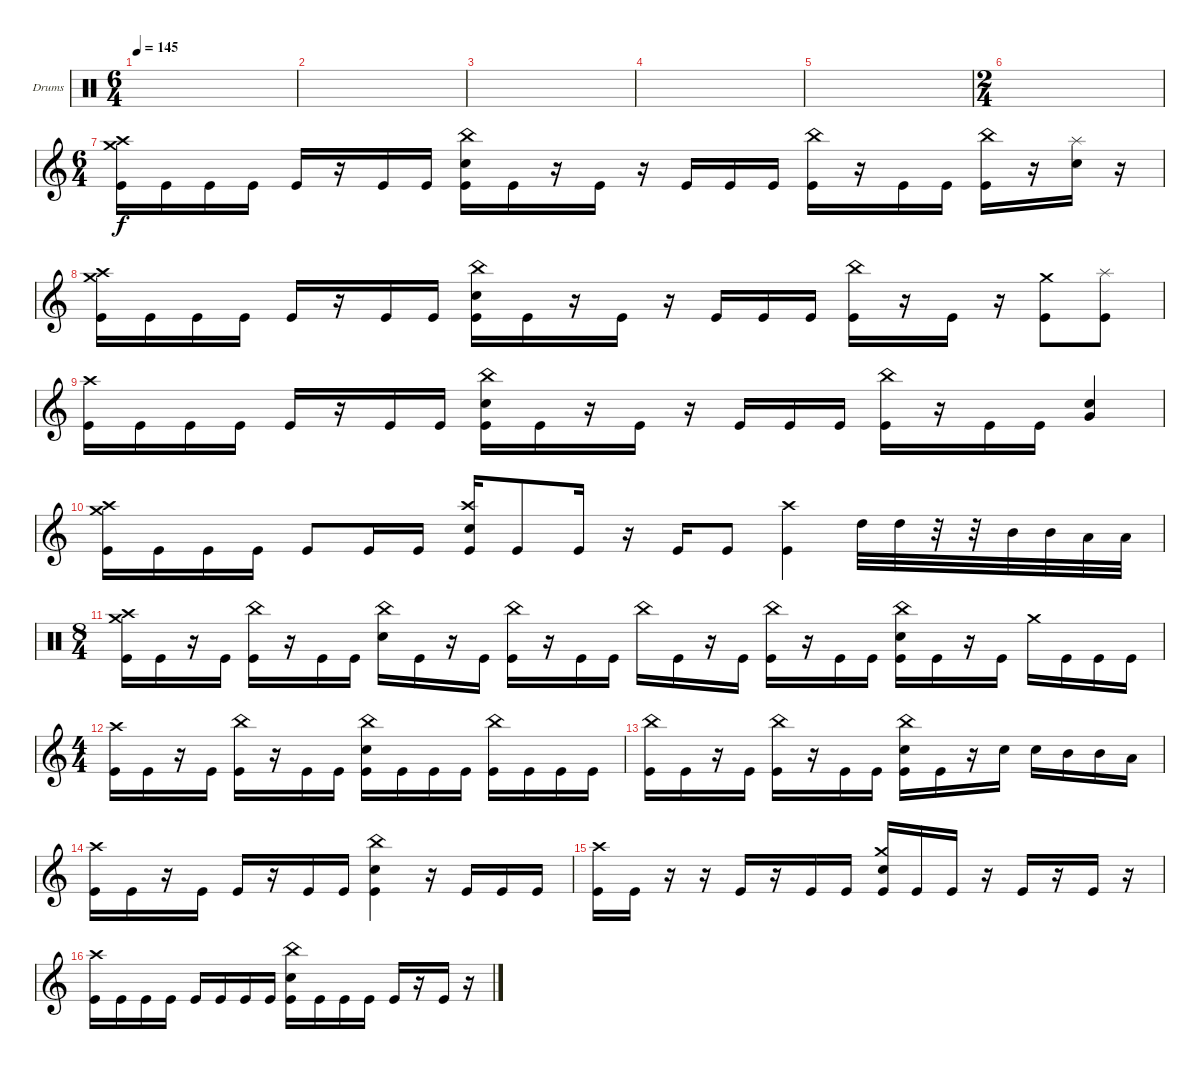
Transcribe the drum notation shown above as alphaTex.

\defaultSystemsLayout 4
\bracketExtendMode groupsimilarinstruments
\firstSystemTrackNameOrientation horizontal
\otherSystemsTrackNameOrientation horizontal
\track ("Drums" "Drums") {instrument percussion}
\staff {score}
\articulation defaults
\ts (6 4)
\tempo 145
\clef neutral
\ks c
|
|
|
|
|
\ts (2 4)
|
\ts (6 4)
\clef g2
("Kick (hit)" "Crash high (hit)" "Crash medium (hit)").16 "Kick (hit)".16 "Kick (hit)".16 "Kick (hit)".16 "Kick (hit)".16 r.16 "Kick (hit)".16 "Kick (hit)".16 ("Kick (hit)" "Snare (hit) 2" "China (hit)").16 "Kick (hit)".16 r.16 "Kick (hit)".16 r.16 "Kick (hit)".16 "Kick (hit)".16 "Kick (hit)".16 ("Kick (hit)" "China (hit)").16 r.16 "Kick (hit)".16 "Kick (hit)".16 ("Kick (hit)" "China (hit)").16 r.16 ("Snare (hit) 2" "Splash (hit)").16 r.16 |
("Kick (hit)" "Crash high (hit)" "Crash medium (hit)").16 "Kick (hit)".16 "Kick (hit)".16 "Kick (hit)".16 "Kick (hit)".16 r.16 "Kick (hit)".16 "Kick (hit)".16 ("Kick (hit)" "Snare (hit) 2" "China (hit)").16 "Kick (hit)".16 r.16 "Kick (hit)".16 r.16 "Kick (hit)".16 "Kick (hit)".16 "Kick (hit)".16 ("Kick (hit)" "China (hit)").16 r.16 "Kick (hit)".16 r.16 ("Kick (hit)" "Crash medium (hit)").8 ("Kick (hit)" "Splash (hit)").8 |
("Kick (hit)" "Crash high (hit)").16 "Kick (hit)".16 "Kick (hit)".16 "Kick (hit)".16 "Kick (hit)".16 r.16 "Kick (hit)".16 "Kick (hit)".16 ("Kick (hit)" "Snare (hit) 2" "China (hit)").16 "Kick (hit)".16 r.16 "Kick (hit)".16 r.16 "Kick (hit)".16 "Kick (hit)".16 "Kick (hit)".16 ("Kick (hit)" "China (hit)").16 r.16 "Kick (hit)".16 "Kick (hit)".16 ("Snare (hit) 2" "Very Low Tom (hit)").4 |
("Kick (hit)" "Crash high (hit)" "Crash medium (hit)").16 "Kick (hit)".16 "Kick (hit)".16 "Kick (hit)".16 "Kick (hit)".8 "Kick (hit)".16 "Kick (hit)".16 ("Kick (hit)" "Snare (hit) 2" "Crash high (hit)").16 "Kick (hit)".8 "Kick (hit)".16 r.16 "Kick (hit)".16 "Kick (hit)".8 ("Kick (hit)" "Crash high (hit)").4 "High Tom (hit)".32 "High Tom (hit)".32 r.32 r.32 "Mid Tom (hit)".32 "Mid Tom (hit)".32 "Low Tom (hit)".32 "Low Tom (hit)".32 |
\ts (8 4)
\clef neutral
("Kick (hit)" "Crash high (hit)" "Crash medium (hit)").16 "Kick (hit)".16 r.16 "Kick (hit)".16 ("Kick (hit)" "China (hit)").16 r.16 "Kick (hit)".16 "Kick (hit)".16 ("Snare (hit) 2" "China (hit)").16 "Kick (hit)".16 r.16 "Kick (hit)".16 ("Kick (hit)" "China (hit)").16 r.16 "Kick (hit)".16 "Kick (hit)".16 "China (hit)".16 "Kick (hit)".16 r.16 "Kick (hit)".16 ("Kick (hit)" "China (hit)").16 r.16 "Kick (hit)".16 "Kick (hit)".16 ("Kick (hit)" "Snare (hit) 2" "China (hit)").16 "Kick (hit)".16 r.16 "Kick (hit)".16 "Crash medium (hit)".16 "Kick (hit)".16 "Kick (hit)".16 "Kick (hit)".16 |
\ts (4 4)
\clef g2
("Kick (hit)" "Crash high (hit)").16 "Kick (hit)".16 r.16 "Kick (hit)".16 ("Kick (hit)" "China (hit)").16 r.16 "Kick (hit)".16 "Kick (hit)".16 ("Kick (hit)" "Snare (hit) 2" "China (hit)").16 "Kick (hit)".16 "Kick (hit)".16 "Kick (hit)".16 ("Kick (hit)" "China (hit)").16 "Kick (hit)".16 "Kick (hit)".16 "Kick (hit)".16 |
("Kick (hit)" "China (hit)").16 "Kick (hit)".16 r.16 "Kick (hit)".16 ("Kick (hit)" "China (hit)").16 r.16 "Kick (hit)".16 "Kick (hit)".16 ("Kick (hit)" "Snare (hit) 2" "China (hit)").16 "Kick (hit)".16 r.16 "Snare (hit) 2".16 "Snare (hit) 2".16 "Mid Tom (hit)".16 "Mid Tom (hit)".16 "Low Tom (hit)".16 |
("Kick (hit)" "Crash high (hit)").16 "Kick (hit)".16 r.16 "Kick (hit)".16 "Kick (hit)".16 r.16 "Kick (hit)".16 "Kick (hit)".16 ("Kick (hit)" "Snare (hit) 2" "China (hit)").4 r.16 "Kick (hit)".16 "Kick (hit)".16 "Kick (hit)".16 |
("Kick (hit)" "Crash high (hit)").16 "Kick (hit)".16 r.16 r.16 "Kick (hit)".16 r.16 "Kick (hit)".16 "Kick (hit)".16 ("Kick (hit)" "Crash medium (hit)" "Snare (hit) 2").16 "Kick (hit)".16 "Kick (hit)".16 r.16 "Kick (hit)".16 r.16 "Kick (hit)".16 r.16 |
("Kick (hit)" "Crash high (hit)").16 "Kick (hit)".16 "Kick (hit)".16 "Kick (hit)".16 "Kick (hit)".16 "Kick (hit)".16 "Kick (hit)".16 "Kick (hit)".16 ("Kick (hit)" "Snare (hit) 2" "China (hit)").16 "Kick (hit)".16 "Kick (hit)".16 "Kick (hit)".16 "Kick (hit)".16 r.16 "Kick (hit)".16 r.16
